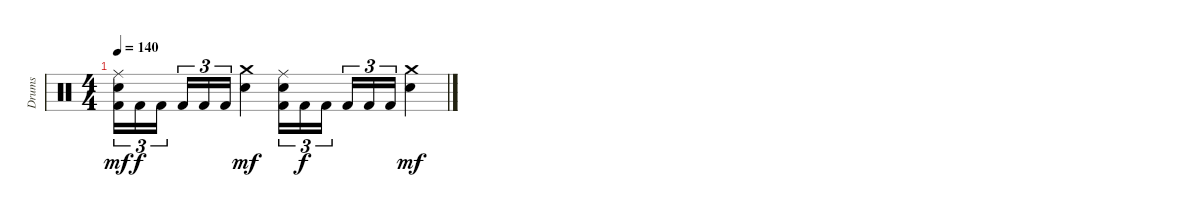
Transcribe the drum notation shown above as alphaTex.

\track ("Drums" "Drums") {instrument percussion}
\staff {score}
\articulation defaults
\ts (4 4)
\tempo 140
\clef neutral
\ks c
("Ride (middle)" "Electric Snare (hit)" "Kick (hit) 2").16{tu (3 2) dy mf} "Kick (hit) 2".16{tu (3 2) dy f} "Kick (hit) 2".16{tu (3 2) beam splitsecondary} "Kick (hit) 2".16{tu (3 2)} "Kick (hit) 2".16{tu (3 2)} "Kick (hit) 2".16{tu (3 2)} ("Crash medium (hit)" "Electric Snare (hit)").4{dy mf} ("Ride (middle)" "Electric Snare (hit)" "Kick (hit) 2").16{tu (3 2)} "Kick (hit) 2".16{tu (3 2) dy f} "Kick (hit) 2".16{tu (3 2) beam splitsecondary} "Kick (hit) 2".16{tu (3 2)} "Kick (hit) 2".16{tu (3 2)} "Kick (hit) 2".16{tu (3 2)} ("Crash medium (hit)" "Electric Snare (hit)").4{dy mf}
